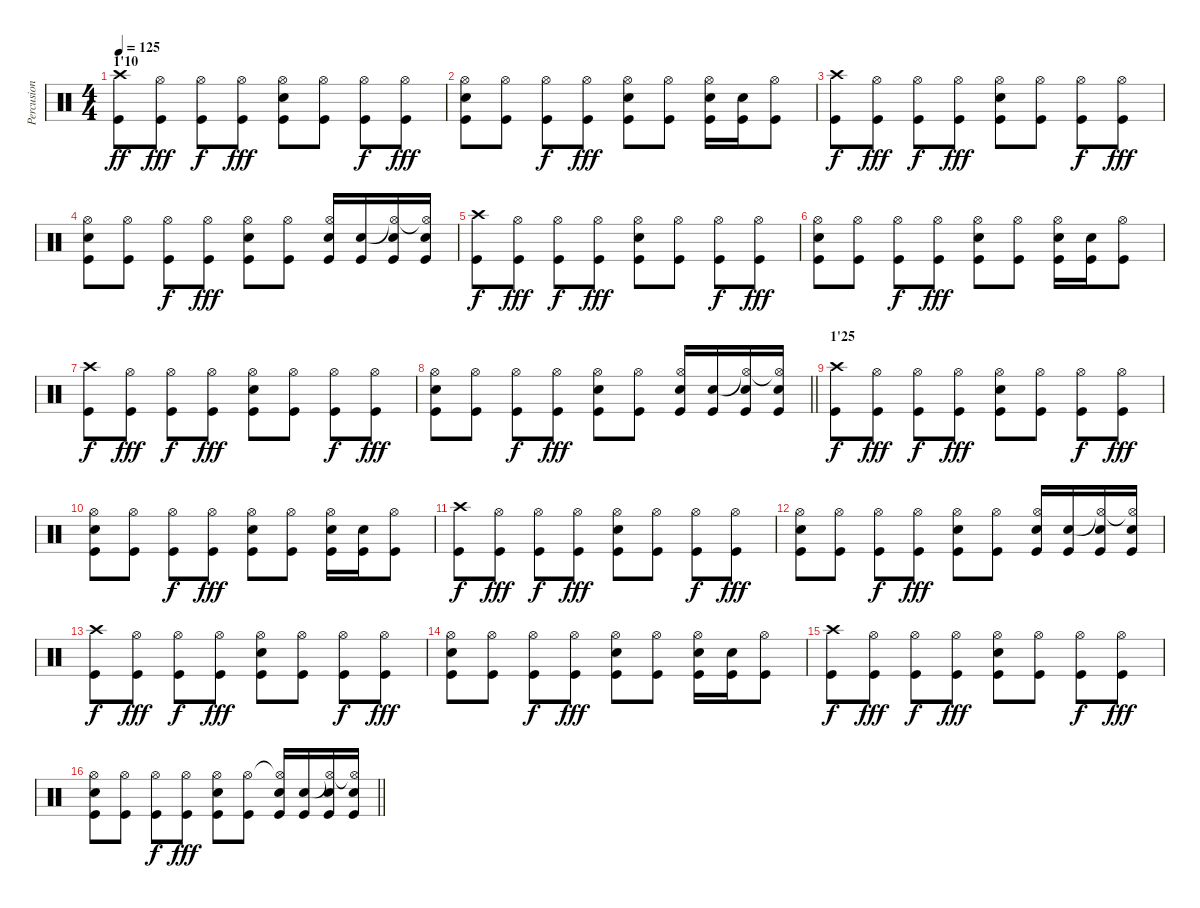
\track ("Percusion" "Percusion") {instrument percussion}
\staff {score}
\articulation defaults
\ts (4 4)
\section ("" "1'10")
\tempo 125
\clef neutral
\ks c
("Crash high (hit)" "Kick (hit)").8{dy ff} ("Hi-Hat (open)" "Kick (hit)").8{dy fff} ("Hi-Hat (open)" "Kick (hit)").8{dy f} ("Hi-Hat (open)" "Kick (hit)").8{dy fff} ("Hi-Hat (open)" "Electric Snare (hit)" "Kick (hit)").8 ("Hi-Hat (open)" "Kick (hit)").8 ("Hi-Hat (open)" "Kick (hit)").8{dy f} ("Hi-Hat (open)" "Kick (hit)").8{dy fff} |
("Hi-Hat (open)" "Electric Snare (hit)" "Kick (hit)").8 ("Hi-Hat (open)" "Kick (hit)").8 ("Hi-Hat (open)" "Kick (hit)").8{dy f} ("Hi-Hat (open)" "Kick (hit)").8{dy fff} ("Hi-Hat (open)" "Electric Snare (hit)" "Kick (hit)").8 ("Hi-Hat (open)" "Kick (hit)").8 ("Hi-Hat (open)" "Electric Snare (hit)" "Kick (hit)").16 ("Electric Snare (hit)" "Kick (hit)").16 ("Hi-Hat (open)" "Kick (hit)").8 |
("Crash high (hit)" "Kick (hit)").8{dy f} ("Hi-Hat (open)" "Kick (hit)").8{dy fff} ("Hi-Hat (open)" "Kick (hit)").8{dy f} ("Hi-Hat (open)" "Kick (hit)").8{dy fff} ("Hi-Hat (open)" "Electric Snare (hit)" "Kick (hit)").8 ("Hi-Hat (open)" "Kick (hit)").8 ("Hi-Hat (open)" "Kick (hit)").8{dy f} ("Hi-Hat (open)" "Kick (hit)").8{dy fff} |
("Hi-Hat (open)" "Electric Snare (hit)" "Kick (hit)").8 ("Hi-Hat (open)" "Kick (hit)").8 ("Hi-Hat (open)" "Kick (hit)").8{dy f} ("Hi-Hat (open)" "Kick (hit)").8{dy fff} ("Hi-Hat (open)" "Electric Snare (hit)" "Kick (hit)").8 ("Hi-Hat (open)" "Kick (hit)").8 ("Hi-Hat (open)" "Electric Snare (hit)" "Kick (hit)").16 ("Electric Snare (hit)" "Kick (hit)").16 ("Hi-Hat (open)"{t} "Electric Snare (hit)" "Kick (hit)").16 ("Hi-Hat (open)"{t} "Electric Snare (hit)" "Kick (hit)").16 |
("Crash high (hit)" "Kick (hit)").8{dy f} ("Hi-Hat (open)" "Kick (hit)").8{dy fff} ("Hi-Hat (open)" "Kick (hit)").8{dy f} ("Hi-Hat (open)" "Kick (hit)").8{dy fff} ("Hi-Hat (open)" "Electric Snare (hit)" "Kick (hit)").8 ("Hi-Hat (open)" "Kick (hit)").8 ("Hi-Hat (open)" "Kick (hit)").8{dy f} ("Hi-Hat (open)" "Kick (hit)").8{dy fff} |
("Hi-Hat (open)" "Electric Snare (hit)" "Kick (hit)").8 ("Hi-Hat (open)" "Kick (hit)").8 ("Hi-Hat (open)" "Kick (hit)").8{dy f} ("Hi-Hat (open)" "Kick (hit)").8{dy fff} ("Hi-Hat (open)" "Electric Snare (hit)" "Kick (hit)").8 ("Hi-Hat (open)" "Kick (hit)").8 ("Hi-Hat (open)" "Electric Snare (hit)" "Kick (hit)").16 ("Electric Snare (hit)" "Kick (hit)").16 ("Hi-Hat (open)" "Kick (hit)").8 |
("Crash high (hit)" "Kick (hit)").8{dy f} ("Hi-Hat (open)" "Kick (hit)").8{dy fff} ("Hi-Hat (open)" "Kick (hit)").8{dy f} ("Hi-Hat (open)" "Kick (hit)").8{dy fff} ("Hi-Hat (open)" "Electric Snare (hit)" "Kick (hit)").8 ("Hi-Hat (open)" "Kick (hit)").8 ("Hi-Hat (open)" "Kick (hit)").8{dy f} ("Hi-Hat (open)" "Kick (hit)").8{dy fff} |
\barLineRight lightlight
("Hi-Hat (open)" "Electric Snare (hit)" "Kick (hit)").8 ("Hi-Hat (open)" "Kick (hit)").8 ("Hi-Hat (open)" "Kick (hit)").8{dy f} ("Hi-Hat (open)" "Kick (hit)").8{dy fff} ("Hi-Hat (open)" "Electric Snare (hit)" "Kick (hit)").8 ("Hi-Hat (open)" "Kick (hit)").8 ("Hi-Hat (open)" "Electric Snare (hit)" "Kick (hit)").16 ("Electric Snare (hit)" "Kick (hit)").16 ("Hi-Hat (open)"{t} "Electric Snare (hit)" "Kick (hit)").16 ("Hi-Hat (open)"{t} "Electric Snare (hit)" "Kick (hit)").16 |
\section ("" "1'25")
("Crash high (hit)" "Kick (hit)").8{dy f} ("Hi-Hat (open)" "Kick (hit)").8{dy fff} ("Hi-Hat (open)" "Kick (hit)").8{dy f} ("Hi-Hat (open)" "Kick (hit)").8{dy fff} ("Hi-Hat (open)" "Electric Snare (hit)" "Kick (hit)").8 ("Hi-Hat (open)" "Kick (hit)").8 ("Hi-Hat (open)" "Kick (hit)").8{dy f} ("Hi-Hat (open)" "Kick (hit)").8{dy fff} |
("Hi-Hat (open)" "Electric Snare (hit)" "Kick (hit)").8 ("Hi-Hat (open)" "Kick (hit)").8 ("Hi-Hat (open)" "Kick (hit)").8{dy f} ("Hi-Hat (open)" "Kick (hit)").8{dy fff} ("Hi-Hat (open)" "Electric Snare (hit)" "Kick (hit)").8 ("Hi-Hat (open)" "Kick (hit)").8 ("Hi-Hat (open)" "Electric Snare (hit)" "Kick (hit)").16 ("Electric Snare (hit)" "Kick (hit)").16 ("Hi-Hat (open)" "Kick (hit)").8 |
("Crash high (hit)" "Kick (hit)").8{dy f} ("Hi-Hat (open)" "Kick (hit)").8{dy fff} ("Hi-Hat (open)" "Kick (hit)").8{dy f} ("Hi-Hat (open)" "Kick (hit)").8{dy fff} ("Hi-Hat (open)" "Electric Snare (hit)" "Kick (hit)").8 ("Hi-Hat (open)" "Kick (hit)").8 ("Hi-Hat (open)" "Kick (hit)").8{dy f} ("Hi-Hat (open)" "Kick (hit)").8{dy fff} |
("Hi-Hat (open)" "Electric Snare (hit)" "Kick (hit)").8 ("Hi-Hat (open)" "Kick (hit)").8 ("Hi-Hat (open)" "Kick (hit)").8{dy f} ("Hi-Hat (open)" "Kick (hit)").8{dy fff} ("Hi-Hat (open)" "Electric Snare (hit)" "Kick (hit)").8 ("Hi-Hat (open)" "Kick (hit)").8 ("Hi-Hat (open)" "Electric Snare (hit)" "Kick (hit)").16 ("Electric Snare (hit)" "Kick (hit)").16 ("Hi-Hat (open)"{t} "Electric Snare (hit)" "Kick (hit)").16 ("Hi-Hat (open)"{t} "Electric Snare (hit)" "Kick (hit)").16 |
("Crash high (hit)" "Kick (hit)").8{dy f} ("Hi-Hat (open)" "Kick (hit)").8{dy fff} ("Hi-Hat (open)" "Kick (hit)").8{dy f} ("Hi-Hat (open)" "Kick (hit)").8{dy fff} ("Hi-Hat (open)" "Electric Snare (hit)" "Kick (hit)").8 ("Hi-Hat (open)" "Kick (hit)").8 ("Hi-Hat (open)" "Kick (hit)").8{dy f} ("Hi-Hat (open)" "Kick (hit)").8{dy fff} |
("Hi-Hat (open)" "Electric Snare (hit)" "Kick (hit)").8 ("Hi-Hat (open)" "Kick (hit)").8 ("Hi-Hat (open)" "Kick (hit)").8{dy f} ("Hi-Hat (open)" "Kick (hit)").8{dy fff} ("Hi-Hat (open)" "Electric Snare (hit)" "Kick (hit)").8 ("Hi-Hat (open)" "Kick (hit)").8 ("Hi-Hat (open)" "Electric Snare (hit)" "Kick (hit)").16 ("Electric Snare (hit)" "Kick (hit)").16 ("Hi-Hat (open)" "Kick (hit)").8 |
("Crash high (hit)" "Kick (hit)").8{dy f} ("Hi-Hat (open)" "Kick (hit)").8{dy fff} ("Hi-Hat (open)" "Kick (hit)").8{dy f} ("Hi-Hat (open)" "Kick (hit)").8{dy fff} ("Hi-Hat (open)" "Electric Snare (hit)" "Kick (hit)").8 ("Hi-Hat (open)" "Kick (hit)").8 ("Hi-Hat (open)" "Kick (hit)").8{dy f} ("Hi-Hat (open)" "Kick (hit)").8{dy fff} |
\barLineRight lightlight
("Hi-Hat (open)" "Electric Snare (hit)" "Kick (hit)").8 ("Hi-Hat (open)" "Kick (hit)").8 ("Hi-Hat (open)" "Kick (hit)").8{dy f} ("Hi-Hat (open)" "Kick (hit)").8{dy fff} ("Hi-Hat (open)" "Electric Snare (hit)" "Kick (hit)").8 ("Hi-Hat (open)" "Kick (hit)").8 ("Hi-Hat (open)"{t} "Electric Snare (hit)" "Kick (hit)").16 ("Electric Snare (hit)" "Kick (hit)").16 ("Hi-Hat (open)"{t} "Electric Snare (hit)" "Kick (hit)").16 ("Hi-Hat (open)"{t} "Electric Snare (hit)" "Kick (hit)").16
